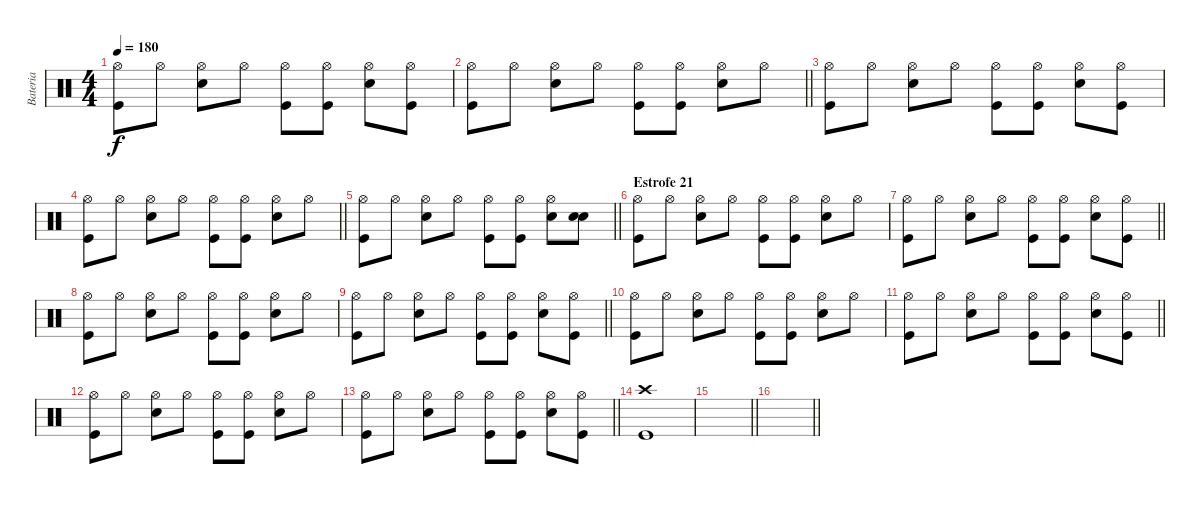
\track ("Bateria" "Bateria") {instrument percussion}
\staff {score}
\articulation defaults
\ts (4 4)
\tempo 180
\clef neutral
\ks c
("Hi-Hat (open)" "Kick (hit)").8{dy f} "Hi-Hat (open)".8 ("Hi-Hat (open)" "Snare (hit) 2").8 "Hi-Hat (open)".8 ("Hi-Hat (open)" "Kick (hit)").8 ("Hi-Hat (open)" "Kick (hit)").8 ("Hi-Hat (open)" "Snare (hit) 2").8 ("Hi-Hat (open)" "Kick (hit)").8 |
\barLineRight lightlight
("Hi-Hat (open)" "Kick (hit)").8 "Hi-Hat (open)".8 ("Hi-Hat (open)" "Snare (hit) 2").8 "Hi-Hat (open)".8 ("Hi-Hat (open)" "Kick (hit)").8 ("Hi-Hat (open)" "Kick (hit)").8 ("Hi-Hat (open)" "Snare (hit) 2").8 "Hi-Hat (open)".8 |
("Hi-Hat (open)" "Kick (hit)").8 "Hi-Hat (open)".8 ("Hi-Hat (open)" "Snare (hit) 2").8 "Hi-Hat (open)".8 ("Hi-Hat (open)" "Kick (hit)").8 ("Hi-Hat (open)" "Kick (hit)").8 ("Hi-Hat (open)" "Snare (hit) 2").8 ("Hi-Hat (open)" "Kick (hit)").8 |
\barLineRight lightlight
("Hi-Hat (open)" "Kick (hit)").8 "Hi-Hat (open)".8 ("Hi-Hat (open)" "Snare (hit) 2").8 "Hi-Hat (open)".8 ("Hi-Hat (open)" "Kick (hit)").8 ("Hi-Hat (open)" "Kick (hit)").8 ("Hi-Hat (open)" "Snare (hit) 2").8 "Hi-Hat (open)".8 |
\barLineRight lightlight
("Hi-Hat (open)" "Kick (hit)").8 "Hi-Hat (open)".8 ("Hi-Hat (open)" "Snare (hit) 2").8 "Hi-Hat (open)".8 ("Hi-Hat (open)" "Kick (hit)").8 ("Hi-Hat (open)" "Kick (hit)").8 ("Hi-Hat (open)" "Snare (hit) 2").8 ("Electric Snare (hit)" "Snare (hit) 2").8 |
\section ("" "Estrofe 21")
("Hi-Hat (open)" "Kick (hit)").8 "Hi-Hat (open)".8 ("Hi-Hat (open)" "Snare (hit) 2").8 "Hi-Hat (open)".8 ("Hi-Hat (open)" "Kick (hit)").8 ("Hi-Hat (open)" "Kick (hit)").8 ("Hi-Hat (open)" "Snare (hit) 2").8 "Hi-Hat (open)".8 |
\barLineRight lightlight
("Hi-Hat (open)" "Kick (hit)").8 "Hi-Hat (open)".8 ("Hi-Hat (open)" "Snare (hit) 2").8 "Hi-Hat (open)".8 ("Hi-Hat (open)" "Kick (hit)").8 ("Hi-Hat (open)" "Kick (hit)").8 ("Hi-Hat (open)" "Snare (hit) 2").8 ("Hi-Hat (open)" "Kick (hit)").8 |
("Hi-Hat (open)" "Kick (hit)").8 "Hi-Hat (open)".8 ("Hi-Hat (open)" "Snare (hit) 2").8 "Hi-Hat (open)".8 ("Hi-Hat (open)" "Kick (hit)").8 ("Hi-Hat (open)" "Kick (hit)").8 ("Hi-Hat (open)" "Snare (hit) 2").8 "Hi-Hat (open)".8 |
\barLineRight lightlight
("Hi-Hat (open)" "Kick (hit)").8 "Hi-Hat (open)".8 ("Hi-Hat (open)" "Snare (hit) 2").8 "Hi-Hat (open)".8 ("Hi-Hat (open)" "Kick (hit)").8 ("Hi-Hat (open)" "Kick (hit)").8 ("Hi-Hat (open)" "Snare (hit) 2").8 ("Hi-Hat (open)" "Kick (hit)").8 |
("Hi-Hat (open)" "Kick (hit)").8 "Hi-Hat (open)".8 ("Hi-Hat (open)" "Snare (hit) 2").8 "Hi-Hat (open)".8 ("Hi-Hat (open)" "Kick (hit)").8 ("Hi-Hat (open)" "Kick (hit)").8 ("Hi-Hat (open)" "Snare (hit) 2").8 "Hi-Hat (open)".8 |
\barLineRight lightlight
("Hi-Hat (open)" "Kick (hit)").8 "Hi-Hat (open)".8 ("Hi-Hat (open)" "Snare (hit) 2").8 "Hi-Hat (open)".8 ("Hi-Hat (open)" "Kick (hit)").8 ("Hi-Hat (open)" "Kick (hit)").8 ("Hi-Hat (open)" "Snare (hit) 2").8 ("Hi-Hat (open)" "Kick (hit)").8 |
("Hi-Hat (open)" "Kick (hit)").8 "Hi-Hat (open)".8 ("Hi-Hat (open)" "Snare (hit) 2").8 "Hi-Hat (open)".8 ("Hi-Hat (open)" "Kick (hit)").8 ("Hi-Hat (open)" "Kick (hit)").8 ("Hi-Hat (open)" "Snare (hit) 2").8 "Hi-Hat (open)".8 |
\barLineRight lightlight
("Hi-Hat (open)" "Kick (hit)").8 "Hi-Hat (open)".8 ("Hi-Hat (open)" "Snare (hit) 2").8 "Hi-Hat (open)".8 ("Hi-Hat (open)" "Kick (hit)").8 ("Hi-Hat (open)" "Kick (hit)").8 ("Hi-Hat (open)" "Snare (hit) 2").8 ("Hi-Hat (open)" "Kick (hit)").8 |
("Crash high (hit)" "Kick (hit)").1 |
\barLineRight lightlight
|
\barLineRight lightlight
